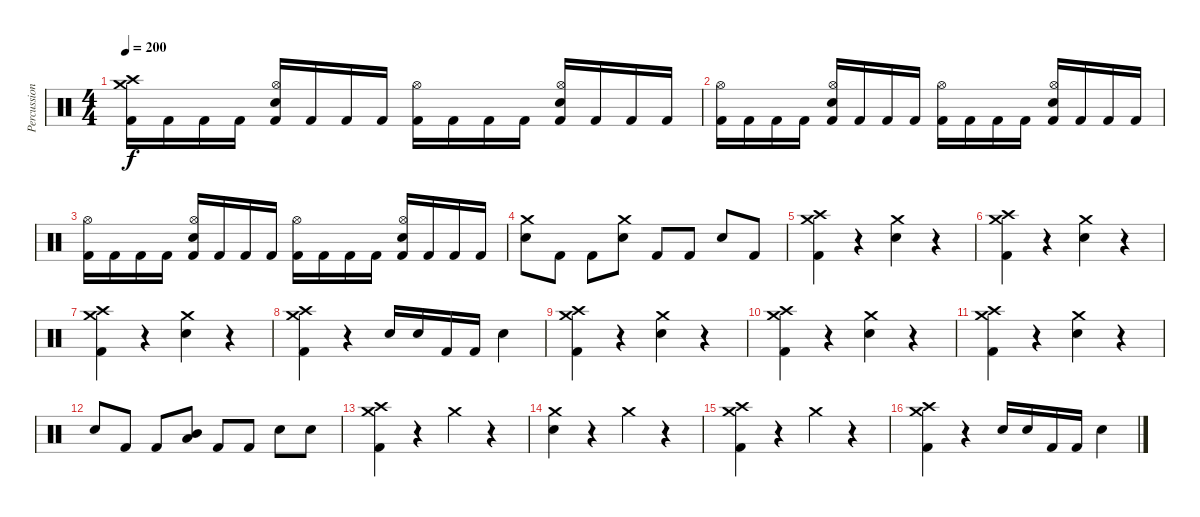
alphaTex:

\track ("Percussion" "Percussion") {instrument percussion}
\staff {score}
\articulation defaults
\ts (4 4)
\tempo 200
\clef neutral
\ks c
("Crash high (hit)" "Crash medium (hit)" "Kick (hit) 2").16{dy f} "Kick (hit) 2".16 "Kick (hit) 2".16 "Kick (hit) 2".16 ("Hi-Hat (open)" "Snare (hit) 2" "Kick (hit) 2").16 "Kick (hit) 2".16 "Kick (hit) 2".16 "Kick (hit) 2".16 ("Hi-Hat (open)" "Kick (hit) 2").16 "Kick (hit) 2".16 "Kick (hit) 2".16 "Kick (hit) 2".16 ("Hi-Hat (open)" "Snare (hit) 2" "Kick (hit) 2").16 "Kick (hit) 2".16 "Kick (hit) 2".16 "Kick (hit) 2".16 |
("Hi-Hat (open)" "Kick (hit) 2").16 "Kick (hit) 2".16 "Kick (hit) 2".16 "Kick (hit) 2".16 ("Hi-Hat (open)" "Snare (hit) 2" "Kick (hit) 2").16 "Kick (hit) 2".16 "Kick (hit) 2".16 "Kick (hit) 2".16 ("Hi-Hat (open)" "Kick (hit) 2").16 "Kick (hit) 2".16 "Kick (hit) 2".16 "Kick (hit) 2".16 ("Hi-Hat (open)" "Snare (hit) 2" "Kick (hit) 2").16 "Kick (hit) 2".16 "Kick (hit) 2".16 "Kick (hit) 2".16 |
("Hi-Hat (open)" "Kick (hit) 2").16 "Kick (hit) 2".16 "Kick (hit) 2".16 "Kick (hit) 2".16 ("Hi-Hat (open)" "Snare (hit) 2" "Kick (hit) 2").16 "Kick (hit) 2".16 "Kick (hit) 2".16 "Kick (hit) 2".16 ("Hi-Hat (open)" "Kick (hit) 2").16 "Kick (hit) 2".16 "Kick (hit) 2".16 "Kick (hit) 2".16 ("Hi-Hat (open)" "Snare (hit) 2" "Kick (hit) 2").16 "Kick (hit) 2".16 "Kick (hit) 2".16 "Kick (hit) 2".16 |
("Crash medium (hit)" "Snare (hit) 2").8 "Kick (hit) 2".8 "Kick (hit) 2".8 ("Crash medium (hit)" "Snare (hit) 2").8 "Kick (hit) 2".8 "Kick (hit) 2".8 "Snare (hit) 2".8 "Kick (hit) 2".8 |
("Crash high (hit)" "Crash medium (hit)" "Kick (hit) 2").4 r.4 ("Crash medium (hit)" "Snare (hit) 2").4 r.4 |
("Crash high (hit)" "Crash medium (hit)" "Kick (hit) 2").4 r.4 ("Crash medium (hit)" "Snare (hit) 2").4 r.4 |
("Crash high (hit)" "Crash medium (hit)" "Kick (hit) 2").4 r.4 ("Crash medium (hit)" "Snare (hit) 2").4 r.4 |
("Crash high (hit)" "Crash medium (hit)" "Kick (hit) 2").4 r.4 "Snare (hit) 2".16 "Snare (hit) 2".16 "Kick (hit) 2".16 "Kick (hit) 2".16 "Snare (hit) 2".4 |
("Crash high (hit)" "Crash medium (hit)" "Kick (hit) 2").4 r.4 ("Crash medium (hit)" "Snare (hit) 2").4 r.4 |
("Crash high (hit)" "Crash medium (hit)" "Kick (hit) 2").4 r.4 ("Crash medium (hit)" "Snare (hit) 2").4 r.4 |
("Crash high (hit)" "Crash medium (hit)" "Kick (hit) 2").4 r.4 ("Crash medium (hit)" "Snare (hit) 2").4 r.4 |
"Snare (hit) 2".8 "Kick (hit) 2".8 "Kick (hit) 2".8 ("Mid Tom (hit)" "Low Tom (hit)").8 "Kick (hit) 2".8 "Kick (hit) 2".8 "Snare (hit) 2".8 "Snare (hit) 2".8 |
("Crash high (hit)" "Crash medium (hit)" "Kick (hit) 2").4 r.4 "Crash medium (hit)".4 r.4 |
("Crash medium (hit)" "Snare (hit) 2").4 r.4 "Crash medium (hit)".4 r.4 |
("Crash high (hit)" "Crash medium (hit)" "Kick (hit) 2").4 r.4 "Crash medium (hit)".4 r.4 |
("Crash high (hit)" "Crash medium (hit)" "Kick (hit) 2").4 r.4 "Snare (hit) 2".16 "Snare (hit) 2".16 "Kick (hit) 2".16 "Kick (hit) 2".16 "Snare (hit) 2".4
